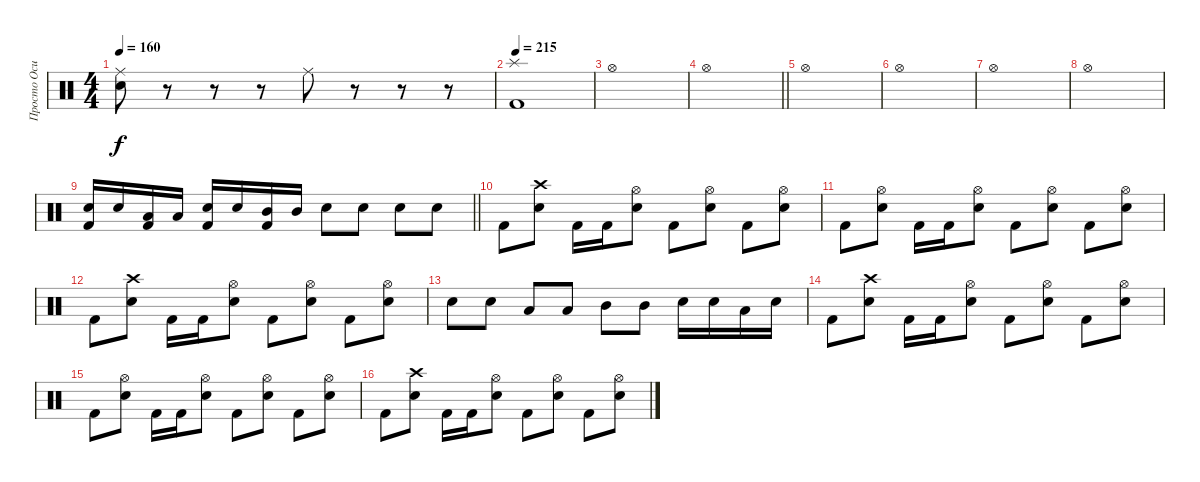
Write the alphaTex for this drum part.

\track ("Просто Осип" "Просто Оси") {instrument percussion}
\staff {score}
\articulation defaults
\ts (4 4)
\tempo 160
\clef neutral
\ks c
("Electric Snare (hit)" "Ride (middle)").8{dy f} r.8 r.8 r.8 "Ride (middle)".8 r.8 r.8 r.8 |
\tempo 215
("Kick (hit) 2" "Splash (hit)").1 |
"Hi-Hat (open)".1 |
\barLineRight lightlight "Hi-Hat (open)".1
|
"Hi-Hat (open)".1 |
"Hi-Hat (open)".1 |
"Hi-Hat (open)".1 |
"Hi-Hat (open)".1 |
\barLineRight lightlight
("Kick (hit) 2" "Electric Snare (hit)").16 "Electric Snare (hit)".16 ("Kick (hit) 2" "Low Tom (hit)").16 "Low Tom (hit)".16 ("Kick (hit) 2" "Electric Snare (hit)").16 "Electric Snare (hit)".16 ("Kick (hit) 2" "Mid Tom (hit)").16 "Mid Tom (hit)".16 "Electric Snare (hit)".8 "Electric Snare (hit)".8 "Electric Snare (hit)".8 "Electric Snare (hit)".8 |
"Kick (hit) 2".8 ("Electric Snare (hit)" "Crash high (hit)").8 "Kick (hit) 2".16 "Kick (hit) 2".16 ("Electric Snare (hit)" "Hi-Hat (open)").8 "Kick (hit) 2".8 ("Electric Snare (hit)" "Hi-Hat (open)").8 "Kick (hit) 2".8 ("Electric Snare (hit)" "Hi-Hat (open)").8 |
"Kick (hit) 2".8 ("Electric Snare (hit)" "Hi-Hat (open)").8 "Kick (hit) 2".16 "Kick (hit) 2".16 ("Electric Snare (hit)" "Hi-Hat (open)").8 "Kick (hit) 2".8 ("Electric Snare (hit)" "Hi-Hat (open)").8 "Kick (hit) 2".8 ("Electric Snare (hit)" "Hi-Hat (open)").8 |
"Kick (hit) 2".8 ("Electric Snare (hit)" "Crash high (hit)").8 "Kick (hit) 2".16 "Kick (hit) 2".16 ("Electric Snare (hit)" "Hi-Hat (open)").8 "Kick (hit) 2".8 ("Electric Snare (hit)" "Hi-Hat (open)").8 "Kick (hit) 2".8 ("Electric Snare (hit)" "Hi-Hat (open)").8 |
"Electric Snare (hit)".8 "Electric Snare (hit)".8 "Low Tom (hit)".8 "Low Tom (hit)".8 "Mid Tom (hit)".8 "Mid Tom (hit)".8 "Electric Snare (hit)".16 "Electric Snare (hit)".16 "Low Tom (hit)".16 "Electric Snare (hit)".16 |
"Kick (hit) 2".8 ("Electric Snare (hit)" "Crash high (hit)").8 "Kick (hit) 2".16 "Kick (hit) 2".16 ("Electric Snare (hit)" "Hi-Hat (open)").8 "Kick (hit) 2".8 ("Electric Snare (hit)" "Hi-Hat (open)").8 "Kick (hit) 2".8 ("Electric Snare (hit)" "Hi-Hat (open)").8 |
"Kick (hit) 2".8 ("Electric Snare (hit)" "Hi-Hat (open)").8 "Kick (hit) 2".16 "Kick (hit) 2".16 ("Electric Snare (hit)" "Hi-Hat (open)").8 "Kick (hit) 2".8 ("Electric Snare (hit)" "Hi-Hat (open)").8 "Kick (hit) 2".8 ("Electric Snare (hit)" "Hi-Hat (open)").8 |
"Kick (hit) 2".8 ("Electric Snare (hit)" "Crash high (hit)").8 "Kick (hit) 2".16 "Kick (hit) 2".16 ("Electric Snare (hit)" "Hi-Hat (open)").8 "Kick (hit) 2".8 ("Electric Snare (hit)" "Hi-Hat (open)").8 "Kick (hit) 2".8 ("Electric Snare (hit)" "Hi-Hat (open)").8
